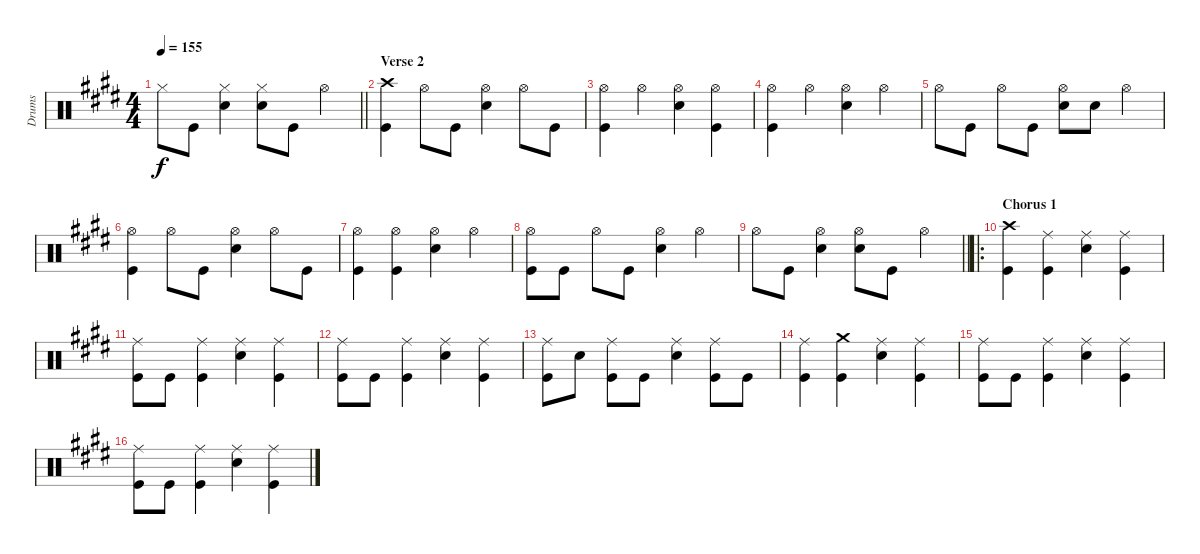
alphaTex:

\track ("Drums" "Drums") {instrument percussion}
\staff {score}
\articulation defaults
\ts (4 4)
\tempo 155
\clef neutral
\barLineRight lightlight
\ks e "Hi-Hat (closed)".8{dy f} "Kick (hit)".8
("Hi-Hat (closed)" "Snare (hit) 2").4 ("Hi-Hat (closed)" "Snare (hit) 2").8 "Kick (hit)".8 "Hi-Hat (open)".4 |
\section ("" "Verse 2")
("Crash high (hit)" "Kick (hit)").4 "Hi-Hat (open)".8 "Kick (hit)".8 ("Hi-Hat (open)" "Snare (hit) 2").4 "Hi-Hat (open)".8 "Kick (hit)".8 |
("Hi-Hat (open)" "Kick (hit)").4 "Hi-Hat (open)".4 ("Hi-Hat (open)" "Snare (hit) 2").4 ("Hi-Hat (open)" "Kick (hit)").4 |
("Hi-Hat (open)" "Kick (hit)").4 "Hi-Hat (open)".4 ("Hi-Hat (open)" "Snare (hit) 2").4 "Hi-Hat (open)".4 |
"Hi-Hat (open)".8 "Kick (hit)".8 "Hi-Hat (open)".8 "Kick (hit)".8 ("Hi-Hat (open)" "Snare (hit) 2").8 "Snare (hit) 2".8 "Hi-Hat (open)".4 |
("Hi-Hat (open)" "Kick (hit)").4 "Hi-Hat (open)".8 "Kick (hit)".8 ("Hi-Hat (open)" "Snare (hit) 2").4 "Hi-Hat (open)".8 "Kick (hit)".8 |
("Hi-Hat (open)" "Kick (hit)").4 ("Hi-Hat (open)" "Kick (hit)").4 ("Hi-Hat (open)" "Snare (hit) 2").4 "Hi-Hat (open)".4 |
("Hi-Hat (open)" "Kick (hit)").8 "Kick (hit)".8 "Hi-Hat (open)".8 "Kick (hit)".8 ("Hi-Hat (open)" "Snare (hit) 2").4 "Hi-Hat (open)".4 |
\barLineRight lightlight "Hi-Hat (open)".8 "Kick (hit)".8
("Hi-Hat (open)" "Snare (hit) 2").4 ("Hi-Hat (open)" "Snare (hit) 2").8 "Kick (hit)".8 "Hi-Hat (open)".4 |
\ro
\section ("" "Chorus 1")
("Crash high (hit)" "Kick (hit)").4 ("Ride (middle)" "Kick (hit)").4 ("Ride (middle)" "Snare (hit) 2").4 ("Ride (middle)" "Kick (hit)").4 |
("Ride (middle)" "Kick (hit)").8 "Kick (hit)".8 ("Ride (middle)" "Kick (hit)").4 ("Ride (middle)" "Snare (hit) 2").4 ("Ride (middle)" "Kick (hit)").4 |
("Ride (middle)" "Kick (hit)").8 "Kick (hit)".8 ("Ride (middle)" "Kick (hit)").4 ("Ride (middle)" "Snare (hit) 2").4 ("Ride (middle)" "Kick (hit)").4 |
("Ride (middle)" "Kick (hit)").8 "Snare (hit) 2".8 ("Ride (middle)" "Kick (hit)").8 "Kick (hit)".8 ("Ride (middle)" "Snare (hit) 2").4 ("Ride (middle)" "Kick (hit)").8 "Kick (hit)".8 |
("Ride (middle)" "Kick (hit)").4 ("Crash medium (hit)" "Kick (hit)").4 ("Ride (middle)" "Snare (hit) 2").4 ("Ride (middle)" "Kick (hit)").4 |
("Ride (middle)" "Kick (hit)").8 "Kick (hit)".8 ("Ride (middle)" "Kick (hit)").4 ("Ride (middle)" "Snare (hit) 2").4 ("Ride (middle)" "Kick (hit)").4 |
("Ride (middle)" "Kick (hit)").8 "Kick (hit)".8 ("Ride (middle)" "Kick (hit)").4 ("Ride (middle)" "Snare (hit) 2").4 ("Ride (middle)" "Kick (hit)").4
